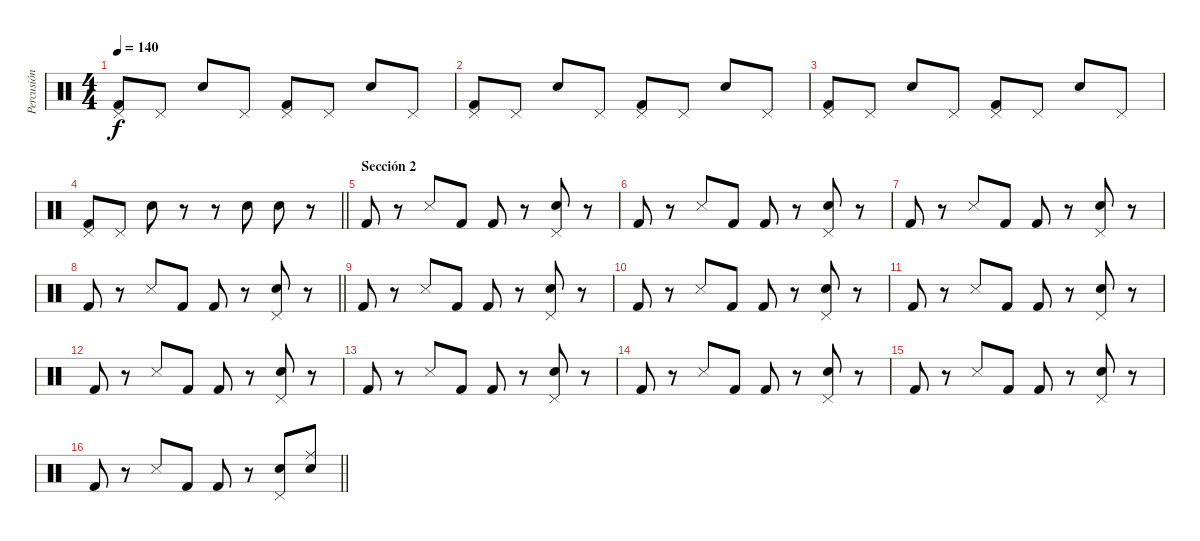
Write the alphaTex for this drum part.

\track ("Percusión" "Percusión") {instrument percussion}
\staff {score}
\articulation defaults
\ts (4 4)
\tempo 140
\clef neutral
\ks c
("Pedal Hi-Hat (hit)" "Kick (hit) 2").8{dy f} "Pedal Hi-Hat (hit)".8 "Snare (hit) 2".8 "Pedal Hi-Hat (hit)".8 ("Pedal Hi-Hat (hit)" "Kick (hit) 2").8 "Pedal Hi-Hat (hit)".8 "Snare (hit) 2".8 "Pedal Hi-Hat (hit)".8 |
("Pedal Hi-Hat (hit)" "Kick (hit) 2").8 "Pedal Hi-Hat (hit)".8 "Snare (hit) 2".8 "Pedal Hi-Hat (hit)".8 ("Pedal Hi-Hat (hit)" "Kick (hit) 2").8 "Pedal Hi-Hat (hit)".8 "Snare (hit) 2".8 "Pedal Hi-Hat (hit)".8 |
("Pedal Hi-Hat (hit)" "Kick (hit) 2").8 "Pedal Hi-Hat (hit)".8 "Snare (hit) 2".8 "Pedal Hi-Hat (hit)".8 ("Pedal Hi-Hat (hit)" "Kick (hit) 2").8 "Pedal Hi-Hat (hit)".8 "Snare (hit) 2".8 "Pedal Hi-Hat (hit)".8 |
\barLineRight lightlight
("Pedal Hi-Hat (hit)" "Kick (hit) 2").8 "Pedal Hi-Hat (hit)".8 "Snare (hit) 2".8 r.8 r.8 "Snare (hit) 2".8 "Snare (hit) 2".8 r.8 |
\section ("" "Sección 2")
"Kick (hit) 2".8 r.8 "Snare (side stick) 3".8 "Kick (hit) 2".8 "Kick (hit) 2".8 r.8 ("Pedal Hi-Hat (hit)" "Snare (hit) 2").8 r.8 |
"Kick (hit) 2".8 r.8 "Snare (side stick) 3".8 "Kick (hit) 2".8 "Kick (hit) 2".8 r.8 ("Pedal Hi-Hat (hit)" "Snare (hit) 2").8 r.8 |
"Kick (hit) 2".8 r.8 "Snare (side stick) 3".8 "Kick (hit) 2".8 "Kick (hit) 2".8 r.8 ("Pedal Hi-Hat (hit)" "Snare (hit) 2").8 r.8 |
\barLineRight lightlight "Kick (hit) 2".8
r.8 "Snare (side stick) 3".8 "Kick (hit) 2".8 "Kick (hit) 2".8 r.8 ("Pedal Hi-Hat (hit)" "Snare (hit) 2").8 r.8 |
"Kick (hit) 2".8 r.8 "Snare (side stick) 3".8 "Kick (hit) 2".8 "Kick (hit) 2".8 r.8 ("Pedal Hi-Hat (hit)" "Snare (hit) 2").8 r.8 |
"Kick (hit) 2".8 r.8 "Snare (side stick) 3".8 "Kick (hit) 2".8 "Kick (hit) 2".8 r.8 ("Pedal Hi-Hat (hit)" "Snare (hit) 2").8 r.8 |
"Kick (hit) 2".8 r.8 "Snare (side stick) 3".8 "Kick (hit) 2".8 "Kick (hit) 2".8 r.8 ("Pedal Hi-Hat (hit)" "Snare (hit) 2").8 r.8 |
"Kick (hit) 2".8 r.8 "Snare (side stick) 3".8 "Kick (hit) 2".8 "Kick (hit) 2".8 r.8 ("Pedal Hi-Hat (hit)" "Snare (hit) 2").8 r.8 |
"Kick (hit) 2".8 r.8 "Snare (side stick) 3".8 "Kick (hit) 2".8 "Kick (hit) 2".8 r.8 ("Pedal Hi-Hat (hit)" "Snare (hit) 2").8 r.8 |
"Kick (hit) 2".8 r.8 "Snare (side stick) 3".8 "Kick (hit) 2".8 "Kick (hit) 2".8 r.8 ("Pedal Hi-Hat (hit)" "Snare (hit) 2").8 r.8 |
"Kick (hit) 2".8 r.8 "Snare (side stick) 3".8 "Kick (hit) 2".8 "Kick (hit) 2".8 r.8 ("Pedal Hi-Hat (hit)" "Snare (hit) 2").8 r.8 |
\barLineRight lightlight "Kick (hit) 2".8
r.8 "Snare (side stick) 3".8 "Kick (hit) 2".8 "Kick (hit) 2".8 r.8 ("Pedal Hi-Hat (hit)" "Snare (hit) 2").8 ("Ride (middle)" "Snare (hit) 2").8
